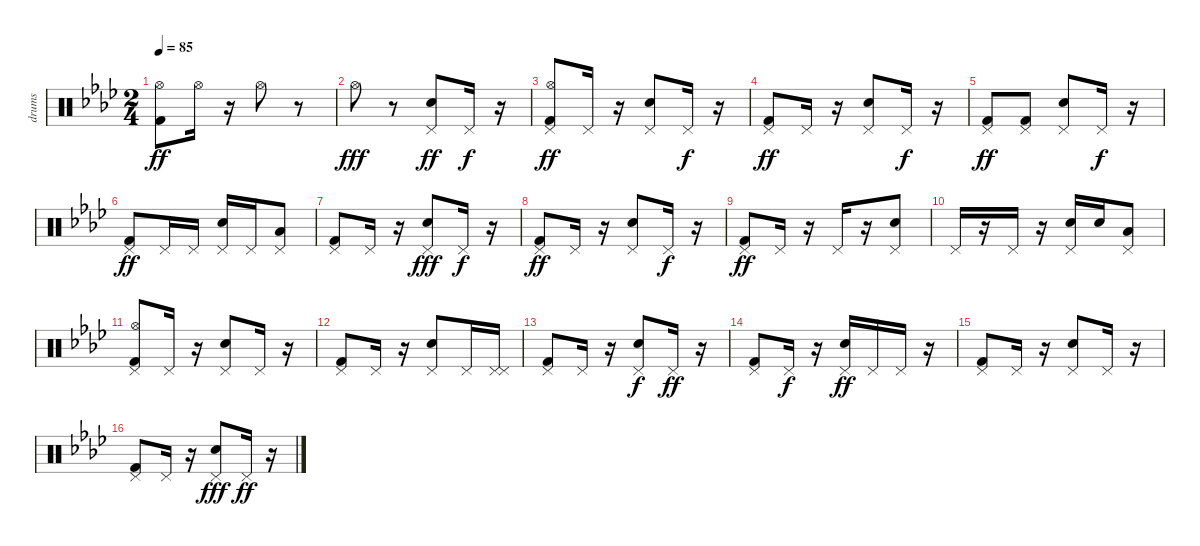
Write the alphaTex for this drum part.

\track ("drums" "drums") {instrument percussion}
\staff {score}
\articulation defaults
\ts (2 4)
\tempo 85
\clef neutral
\ks fminor
("Kick (hit) 2" "Hi-Hat (open)").8{dy ff} "Hi-Hat (open)".16 r.16 "Hi-Hat (open)".8 r.8 |
"Hi-Hat (open)".8{dy fff} r.8 ("Electric Snare (hit)" "Pedal Hi-Hat (hit)").8{dy ff} "Pedal Hi-Hat (hit)".16{dy f} r.16 |
("Hi-Hat (open)" "Pedal Hi-Hat (hit)" "Kick (hit) 2").8{dy ff} "Pedal Hi-Hat (hit)".16 r.16 ("Pedal Hi-Hat (hit)" "Electric Snare (hit)").8 "Pedal Hi-Hat (hit)".16{dy f} r.16 |
("Pedal Hi-Hat (hit)" "Kick (hit) 2").8{dy ff} "Pedal Hi-Hat (hit)".16 r.16 ("Pedal Hi-Hat (hit)" "Electric Snare (hit)").8 "Pedal Hi-Hat (hit)".16{dy f} r.16 |
("Pedal Hi-Hat (hit)" "Kick (hit) 2").8{dy ff} ("Pedal Hi-Hat (hit)" "Kick (hit) 2").8 ("Pedal Hi-Hat (hit)" "Electric Snare (hit)").8 "Pedal Hi-Hat (hit)".16{dy f} r.16 |
("Pedal Hi-Hat (hit)" "Kick (hit) 2").8{dy ff} "Pedal Hi-Hat (hit)".16 "Pedal Hi-Hat (hit)".16 ("Electric Snare (hit)" "Pedal Hi-Hat (hit)").16 "Pedal Hi-Hat (hit)".16 ("Low Floor Tom (hit)" "Pedal Hi-Hat (hit)").8 |
("Pedal Hi-Hat (hit)" "Kick (hit) 2").8 "Pedal Hi-Hat (hit)".16 r.16 ("Pedal Hi-Hat (hit)" "Electric Snare (hit)").8{dy fff} "Pedal Hi-Hat (hit)".16{dy f} r.16 |
("Pedal Hi-Hat (hit)" "Kick (hit) 2").8{dy ff} "Pedal Hi-Hat (hit)".16 r.16 ("Pedal Hi-Hat (hit)" "Electric Snare (hit)").8 "Pedal Hi-Hat (hit)".16{dy f} r.16 |
("Kick (hit) 2" "Pedal Hi-Hat (hit)").8{dy ff} "Pedal Hi-Hat (hit)".16 r.16 "Pedal Hi-Hat (hit)".16 r.16 ("Electric Snare (hit)" "Pedal Hi-Hat (hit)").8 |
"Pedal Hi-Hat (hit)".16 r.16 "Pedal Hi-Hat (hit)".16 r.16 ("Electric Snare (hit)" "Pedal Hi-Hat (hit)").16 "Electric Snare (hit)".16 ("Low Floor Tom (hit)" "Pedal Hi-Hat (hit)").8 |
("Hi-Hat (open)" "Kick (hit) 2" "Pedal Hi-Hat (hit)").8 "Pedal Hi-Hat (hit)".16 r.16 ("Electric Snare (hit)" "Pedal Hi-Hat (hit)").8 "Pedal Hi-Hat (hit)".16 r.16 |
("Kick (hit) 2" "Pedal Hi-Hat (hit)").8 "Pedal Hi-Hat (hit)".16 r.16 ("Electric Snare (hit)" "Pedal Hi-Hat (hit)").8 "Pedal Hi-Hat (hit)".16 ("Pedal Hi-Hat (hit)" "Pedal Hi-Hat (hit)").16 |
("Pedal Hi-Hat (hit)" "Kick (hit) 2").8 "Pedal Hi-Hat (hit)".16 r.16 ("Electric Snare (hit)" "Pedal Hi-Hat (hit)").8{dy f} "Pedal Hi-Hat (hit)".16{dy ff} r.16 |
("Kick (hit) 2" "Pedal Hi-Hat (hit)").8 "Pedal Hi-Hat (hit)".16{dy f} r.16 ("Electric Snare (hit)" "Pedal Hi-Hat (hit)").16{dy ff} "Pedal Hi-Hat (hit)".16 "Pedal Hi-Hat (hit)".16 r.16 |
("Kick (hit) 2" "Pedal Hi-Hat (hit)").8 "Pedal Hi-Hat (hit)".16 r.16 ("Electric Snare (hit)" "Pedal Hi-Hat (hit)").8 "Pedal Hi-Hat (hit)".16 r.16 |
("Pedal Hi-Hat (hit)" "Kick (hit) 2").8 "Pedal Hi-Hat (hit)".16 r.16 ("Pedal Hi-Hat (hit)" "Electric Snare (hit)").8{dy fff} "Pedal Hi-Hat (hit)".16{dy ff} r.16
